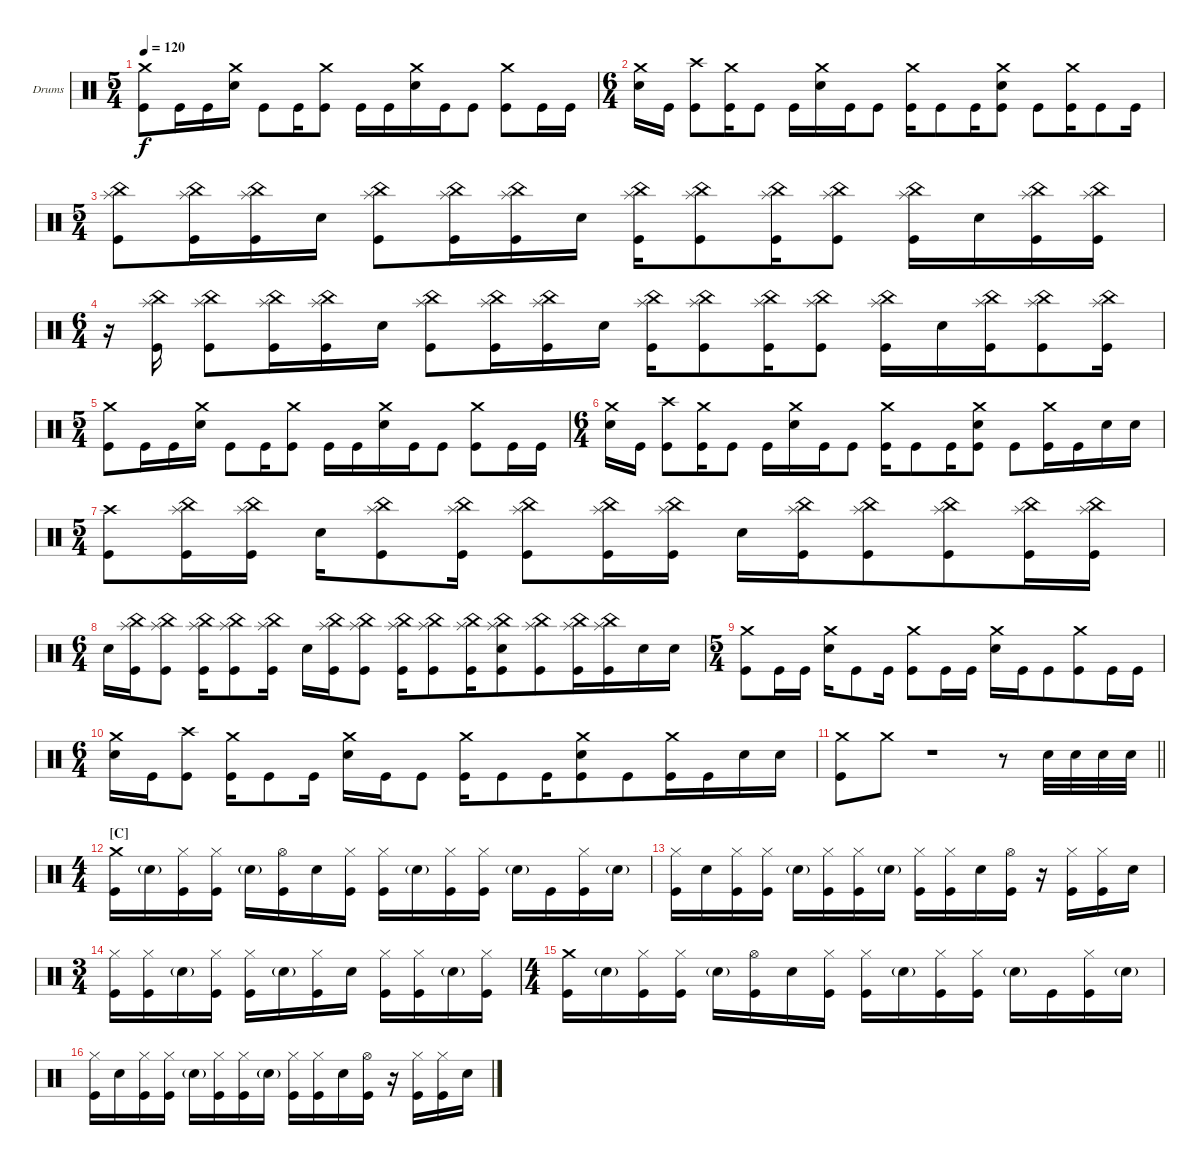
\bracketExtendMode groupsimilarinstruments
\firstSystemTrackNameOrientation horizontal
\otherSystemsTrackNameOrientation horizontal
\track ("Drumkit" "Drums") {multiBarRest instrument percussion}
\staff {score}
\articulation defaults
\ts (5 4)
\beaming (8 2 2 2 4)
\tempo 120
\clef neutral
\ks c
("Crash medium (hit)" "Kick (hit)").8{dy f beam merge} "Kick (hit)".16{beam merge} "Kick (hit)".16{beam merge} ("Crash medium (hit)" "Snare (hit) 2").16{beam split} "Kick (hit)".8{beam merge} "Kick (hit)".16{beam merge} ("Crash medium (hit)" "Kick (hit)").8{beam split} "Kick (hit)".16{beam merge} "Kick (hit)".16{beam merge} ("Crash medium (hit)" "Snare (hit) 2").16{beam merge} "Kick (hit)".16{beam merge} "Kick (hit)".8{beam split} ("Crash medium (hit)" "Kick (hit)").8 "Kick (hit)".16 "Kick (hit)".16 |
\ts (6 4)
\beaming (8 2 2 2 6)
("Crash medium (hit)" "Snare (hit) 2").16 "Kick (hit)".16{beam split} ("Crash high (hit)" "Kick (hit)").8{beam merge} ("Crash medium (hit)" "Kick (hit)").16{beam merge} "Kick (hit)".8{beam split} "Kick (hit)".16{beam merge} ("Crash medium (hit)" "Snare (hit) 2").16{beam merge} "Kick (hit)".16{beam merge} "Kick (hit)".8 ("Crash medium (hit)" "Kick (hit)").16 "Kick (hit)".8 "Kick (hit)".16 ("Crash medium (hit)" "Snare (hit) 2" "Kick (hit)").8{beam split} "Kick (hit)".8 ("Crash medium (hit)" "Kick (hit)").16 "Kick (hit)".8 "Kick (hit)".16 |
\ts (5 4)
\beaming (8 2 2 2 4)
("China (hit)" "Splash (hit)" "Kick (hit)").8{beam merge} ("China (hit)" "Splash (hit)" "Kick (hit)").16{beam merge} ("China (hit)" "Splash (hit)" "Kick (hit)").16{beam merge} "Snare (hit) 2".16{beam split} ("China (hit)" "Splash (hit)" "Kick (hit)").8{beam merge} ("China (hit)" "Splash (hit)" "Kick (hit)").16{beam merge} ("China (hit)" "Splash (hit)" "Kick (hit)").16{beam merge} "Snare (hit) 2".16{beam split} ("China (hit)" "Splash (hit)" "Kick (hit)").16{beam merge} ("China (hit)" "Splash (hit)" "Kick (hit)").8{beam merge} ("China (hit)" "Splash (hit)" "Kick (hit)").16{beam merge} ("China (hit)" "Splash (hit)" "Kick (hit)").8{beam split} ("China (hit)" "Splash (hit)" "Kick (hit)").16 "Snare (hit) 2".16 ("China (hit)" "Splash (hit)" "Kick (hit)").16 ("China (hit)" "Splash (hit)" "Kick (hit)").16 |
\ts (6 4)
\beaming (8 2 2 2 6)
r.16 ("China (hit)" "Splash (hit)" "Kick (hit)").16{beam split} ("China (hit)" "Splash (hit)" "Kick (hit)").8{beam merge} ("China (hit)" "Splash (hit)" "Kick (hit)").16{beam merge} ("China (hit)" "Splash (hit)" "Kick (hit)").16{beam merge} "Snare (hit) 2".16{beam split} ("China (hit)" "Splash (hit)" "Kick (hit)").8{beam merge} ("China (hit)" "Splash (hit)" "Kick (hit)").16{beam merge} ("China (hit)" "Splash (hit)" "Kick (hit)").16{beam merge} "Snare (hit) 2".16 ("China (hit)" "Splash (hit)" "Kick (hit)").16 ("China (hit)" "Splash (hit)" "Kick (hit)").8 ("China (hit)" "Splash (hit)" "Kick (hit)").16 ("China (hit)" "Splash (hit)" "Kick (hit)").8{beam split} ("China (hit)" "Splash (hit)" "Kick (hit)").16 "Snare (hit) 2".16 ("China (hit)" "Splash (hit)" "Kick (hit)").16 ("China (hit)" "Splash (hit)" "Kick (hit)").8 ("China (hit)" "Splash (hit)" "Kick (hit)").16 |
\ts (5 4)
\beaming (8 2 2 2 4)
("Crash medium (hit)" "Kick (hit)").8{beam merge} "Kick (hit)".16{beam merge} "Kick (hit)".16{beam merge} ("Crash medium (hit)" "Snare (hit) 2").16{beam split} "Kick (hit)".8{beam merge} "Kick (hit)".16{beam merge} ("Crash medium (hit)" "Kick (hit)").8{beam split} "Kick (hit)".16{beam merge} "Kick (hit)".16{beam merge} ("Crash medium (hit)" "Snare (hit) 2").16{beam merge} "Kick (hit)".16{beam merge} "Kick (hit)".8{beam split} ("Crash medium (hit)" "Kick (hit)").8 "Kick (hit)".16 "Kick (hit)".16 |
\ts (6 4)
\beaming (8 2 2 2 6)
("Crash medium (hit)" "Snare (hit) 2").16 "Kick (hit)".16{beam split} ("Crash high (hit)" "Kick (hit)").8{beam merge} ("Crash medium (hit)" "Kick (hit)").16{beam merge} "Kick (hit)".8{beam split} "Kick (hit)".16{beam merge} ("Crash medium (hit)" "Snare (hit) 2").16{beam merge} "Kick (hit)".16{beam merge} "Kick (hit)".8{beam split} ("Crash medium (hit)" "Kick (hit)").16{beam merge} "Kick (hit)".8{beam merge} "Kick (hit)".16{beam merge} ("Crash medium (hit)" "Snare (hit) 2" "Kick (hit)").8{beam split} "Kick (hit)".8 ("Crash medium (hit)" "Kick (hit)").16 "Kick (hit)".16 "Snare (hit) 2".16 "Snare (hit) 2".16 |
\ts (5 4)
\beaming (8 2 2 2 4)
("Crash high (hit)" "Kick (hit)").8 ("China (hit)" "Splash (hit)" "Kick (hit)").16 ("China (hit)" "Splash (hit)" "Kick (hit)").16 "Snare (hit) 2".16 ("China (hit)" "Splash (hit)" "Kick (hit)").8 ("China (hit)" "Splash (hit)" "Kick (hit)").16 ("China (hit)" "Splash (hit)" "Kick (hit)").8 ("China (hit)" "Splash (hit)" "Kick (hit)").16 ("China (hit)" "Splash (hit)" "Kick (hit)").16 "Snare (hit) 2".16 ("China (hit)" "Splash (hit)" "Kick (hit)").16 ("China (hit)" "Splash (hit)" "Kick (hit)").8 ("China (hit)" "Splash (hit)" "Kick (hit)").8 ("China (hit)" "Splash (hit)" "Kick (hit)").16 ("China (hit)" "Splash (hit)" "Kick (hit)").16 |
\ts (6 4)
\beaming (8 2 2 2 6)
"Snare (hit) 2".16 ("China (hit)" "Splash (hit)" "Kick (hit)").16 ("China (hit)" "Splash (hit)" "Kick (hit)").8 ("China (hit)" "Splash (hit)" "Kick (hit)").16 ("China (hit)" "Splash (hit)" "Kick (hit)").8 ("China (hit)" "Splash (hit)" "Kick (hit)").16 "Snare (hit) 2".16 ("China (hit)" "Splash (hit)" "Kick (hit)").16 ("China (hit)" "Splash (hit)" "Kick (hit)").8 ("China (hit)" "Splash (hit)" "Kick (hit)").16 ("China (hit)" "Splash (hit)" "Kick (hit)").8 ("China (hit)" "Splash (hit)" "Kick (hit)").16 ("China (hit)" "Splash (hit)" "Snare (hit) 2" "Kick (hit)").8 ("China (hit)" "Splash (hit)" "Kick (hit)").8 ("China (hit)" "Splash (hit)" "Kick (hit)").16 ("China (hit)" "Splash (hit)" "Kick (hit)").16 "Snare (hit) 2".16 "Snare (hit) 2".16 |
\ts (5 4)
\beaming (8 2 2 2 4)
("Crash medium (hit)" "Kick (hit)").8 "Kick (hit)".16 "Kick (hit)".16 ("Crash medium (hit)" "Snare (hit) 2").16 "Kick (hit)".8 "Kick (hit)".16 ("Crash medium (hit)" "Kick (hit)").8 "Kick (hit)".16 "Kick (hit)".16 ("Crash medium (hit)" "Snare (hit) 2").16 "Kick (hit)".16 "Kick (hit)".8 ("Crash medium (hit)" "Kick (hit)").8 "Kick (hit)".16 "Kick (hit)".16 |
\ts (6 4)
\beaming (8 2 2 2 6)
("Crash medium (hit)" "Snare (hit) 2").16 "Kick (hit)".16 ("Crash high (hit)" "Kick (hit)").8 ("Crash medium (hit)" "Kick (hit)").16 "Kick (hit)".8 "Kick (hit)".16 ("Crash medium (hit)" "Snare (hit) 2").16 "Kick (hit)".16 "Kick (hit)".8 ("Crash medium (hit)" "Kick (hit)").16 "Kick (hit)".8 "Kick (hit)".16 ("Crash medium (hit)" "Snare (hit) 2" "Kick (hit)").8 "Kick (hit)".8 ("Crash medium (hit)" "Kick (hit)").16 "Kick (hit)".16 "Snare (hit) 2".16 "Snare (hit) 2".16 |
\barLineRight lightlight
("Crash medium (hit)" "Kick (hit)").8 "Crash medium (hit)".8 r.1 r.8 "Snare (hit) 2".32 "Snare (hit) 2".32 "Snare (hit) 2".32 "Snare (hit) 2".32 |
\ts (4 4)
\beaming (8 2 2 2 2)
\section ("C" "")
("Crash medium (hit)" "Kick (hit)").16 "Snare (hit) 2"{g}.16 ("Hi-Hat (closed)" "Kick (hit)").16 ("Hi-Hat (closed)" "Kick (hit)").16 "Snare (hit) 2"{g}.16 ("Hi-Hat (open)" "Kick (hit)").16 "Snare (hit) 2".16 ("Hi-Hat (closed)" "Kick (hit)").16 ("Hi-Hat (closed)" "Kick (hit)").16 "Snare (hit) 2"{g}.16 ("Hi-Hat (closed)" "Kick (hit)").16 ("Hi-Hat (closed)" "Kick (hit)").16 "Snare (hit) 2"{g}.16 "Kick (hit)".16 ("Hi-Hat (closed)" "Kick (hit)").16 "Snare (hit) 2"{g}.16 |
("Hi-Hat (closed)" "Kick (hit)").16 "Snare (hit) 2".16 ("Hi-Hat (closed)" "Kick (hit)").16 ("Hi-Hat (closed)" "Kick (hit)").16 "Snare (hit) 2"{g}.16 ("Hi-Hat (closed)" "Kick (hit)").16 ("Hi-Hat (closed)" "Kick (hit)").16 "Snare (hit) 2"{g}.16 ("Hi-Hat (closed)" "Kick (hit)").16 ("Hi-Hat (closed)" "Kick (hit)").16 "Snare (hit) 2".16 ("Hi-Hat (open)" "Kick (hit)").16 r.16 ("Hi-Hat (closed)" "Kick (hit)").16 ("Hi-Hat (closed)" "Kick (hit)").16 "Snare (hit) 2".16 |
\ts (3 4)
\beaming (8 2 2 2 2)
("Hi-Hat (closed)" "Kick (hit)").16 ("Hi-Hat (closed)" "Kick (hit)").16 "Snare (hit) 2"{g}.16 ("Hi-Hat (closed)" "Kick (hit)").16 ("Hi-Hat (closed)" "Kick (hit)").16 "Snare (hit) 2"{g}.16 ("Hi-Hat (closed)" "Kick (hit)").16 "Snare (hit) 2".16 ("Hi-Hat (closed)" "Kick (hit)").16 ("Hi-Hat (closed)" "Kick (hit)").16 "Snare (hit) 2"{g}.16 ("Hi-Hat (closed)" "Kick (hit)").16 |
\ts (4 4)
\beaming (8 2 2 2 2)
("Crash medium (hit)" "Kick (hit)").16 "Snare (hit) 2"{g}.16 ("Hi-Hat (closed)" "Kick (hit)").16 ("Hi-Hat (closed)" "Kick (hit)").16 "Snare (hit) 2"{g}.16 ("Hi-Hat (open)" "Kick (hit)").16 "Snare (hit) 2".16 ("Hi-Hat (closed)" "Kick (hit)").16 ("Hi-Hat (closed)" "Kick (hit)").16 "Snare (hit) 2"{g}.16 ("Hi-Hat (closed)" "Kick (hit)").16 ("Hi-Hat (closed)" "Kick (hit)").16 "Snare (hit) 2"{g}.16 "Kick (hit)".16 ("Hi-Hat (closed)" "Kick (hit)").16 "Snare (hit) 2"{g}.16 |
("Hi-Hat (closed)" "Kick (hit)").16 "Snare (hit) 2".16 ("Hi-Hat (closed)" "Kick (hit)").16 ("Hi-Hat (closed)" "Kick (hit)").16 "Snare (hit) 2"{g}.16 ("Hi-Hat (closed)" "Kick (hit)").16 ("Hi-Hat (closed)" "Kick (hit)").16 "Snare (hit) 2"{g}.16 ("Hi-Hat (closed)" "Kick (hit)").16 ("Hi-Hat (closed)" "Kick (hit)").16 "Snare (hit) 2".16 ("Hi-Hat (open)" "Kick (hit)").16 r.16 ("Hi-Hat (closed)" "Kick (hit)").16 ("Hi-Hat (closed)" "Kick (hit)").16 "Snare (hit) 2".16
